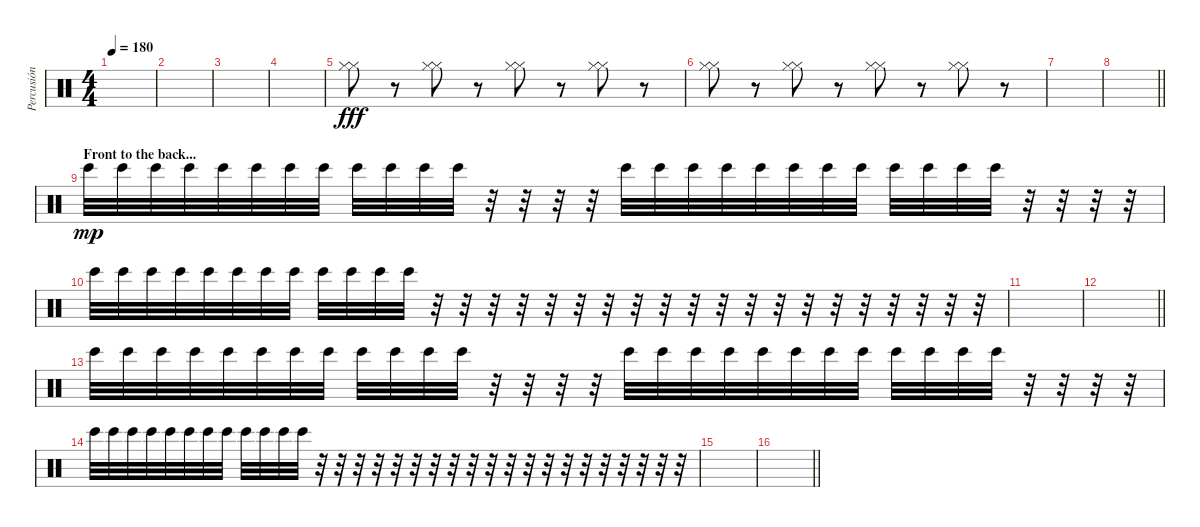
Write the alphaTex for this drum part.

\track ("Percusión" "Percusión") {instrument percussion}
\staff {score}
\articulation defaults
\ts (4 4)
\tempo 180
\clef neutral
\ks c
|
|
|
|
("Hi-Hat (closed)" "Hi-Hat (closed)").8{dy fff} r.8 ("Hi-Hat (closed)" "Hi-Hat (closed)").8 r.8 ("Hi-Hat (closed)" "Hi-Hat (closed)").8 r.8 ("Hi-Hat (closed)" "Hi-Hat (closed)").8 r.8 |
("Hi-Hat (closed)" "Hi-Hat (closed)").8 r.8 ("Hi-Hat (closed)" "Hi-Hat (closed)").8 r.8 ("Hi-Hat (closed)" "Hi-Hat (closed)").8 r.8 ("Hi-Hat (closed)" "Hi-Hat (closed)").8 r.8 |
|
\barLineRight lightlight
|
\section ("" "Front to the back...")
"Bongo High (hit)".32{dy mp} "Bongo High (hit)".32 "Bongo High (hit)".32 "Bongo High (hit)".32 "Bongo High (hit)".32 "Bongo High (hit)".32 "Bongo High (hit)".32 "Bongo High (hit)".32 "Bongo High (hit)".32 "Bongo High (hit)".32 "Bongo High (hit)".32 "Bongo High (hit)".32 r.32 r.32 r.32 r.32 "Bongo High (hit)".32 "Bongo High (hit)".32 "Bongo High (hit)".32 "Bongo High (hit)".32 "Bongo High (hit)".32 "Bongo High (hit)".32 "Bongo High (hit)".32 "Bongo High (hit)".32 "Bongo High (hit)".32 "Bongo High (hit)".32 "Bongo High (hit)".32 "Bongo High (hit)".32 r.32 r.32 r.32 r.32 |
"Bongo High (hit)".32 "Bongo High (hit)".32 "Bongo High (hit)".32 "Bongo High (hit)".32 "Bongo High (hit)".32 "Bongo High (hit)".32 "Bongo High (hit)".32 "Bongo High (hit)".32 "Bongo High (hit)".32 "Bongo High (hit)".32 "Bongo High (hit)".32 "Bongo High (hit)".32 r.32 r.32 r.32 r.32 r.32 r.32 r.32 r.32 r.32 r.32 r.32 r.32 r.32 r.32 r.32 r.32 r.32 r.32 r.32 r.32 |
|
\barLineRight lightlight
|
"Bongo High (hit)".32 "Bongo High (hit)".32 "Bongo High (hit)".32 "Bongo High (hit)".32 "Bongo High (hit)".32 "Bongo High (hit)".32 "Bongo High (hit)".32 "Bongo High (hit)".32 "Bongo High (hit)".32 "Bongo High (hit)".32 "Bongo High (hit)".32 "Bongo High (hit)".32 r.32 r.32 r.32 r.32 "Bongo High (hit)".32 "Bongo High (hit)".32 "Bongo High (hit)".32 "Bongo High (hit)".32 "Bongo High (hit)".32 "Bongo High (hit)".32 "Bongo High (hit)".32 "Bongo High (hit)".32 "Bongo High (hit)".32 "Bongo High (hit)".32 "Bongo High (hit)".32 "Bongo High (hit)".32 r.32 r.32 r.32 r.32 |
"Bongo High (hit)".32 "Bongo High (hit)".32 "Bongo High (hit)".32 "Bongo High (hit)".32 "Bongo High (hit)".32 "Bongo High (hit)".32 "Bongo High (hit)".32 "Bongo High (hit)".32 "Bongo High (hit)".32 "Bongo High (hit)".32 "Bongo High (hit)".32 "Bongo High (hit)".32 r.32 r.32 r.32 r.32 r.32 r.32 r.32 r.32 r.32 r.32 r.32 r.32 r.32 r.32 r.32 r.32 r.32 r.32 r.32 r.32 |
|
\barLineRight lightlight
